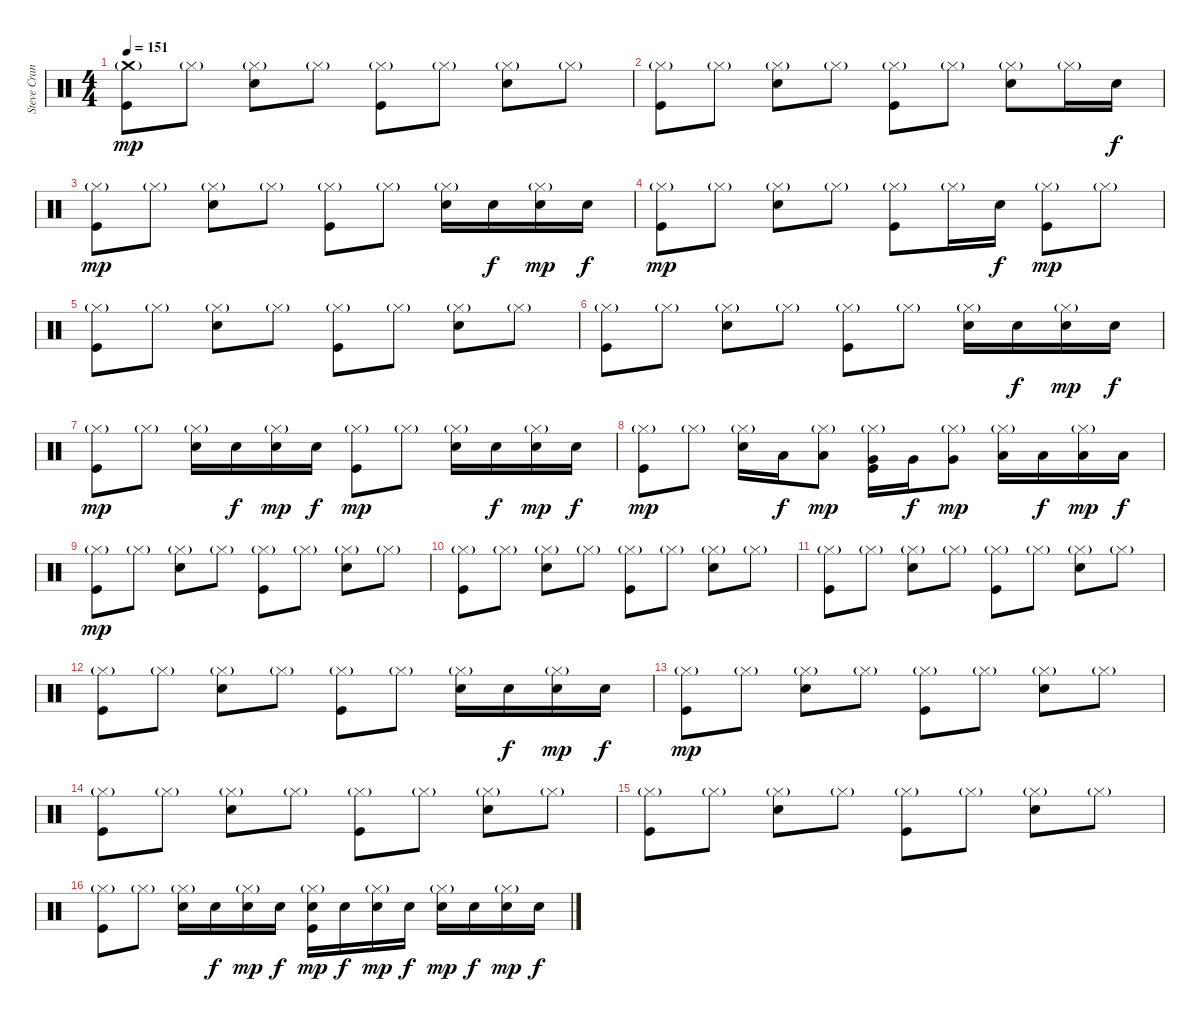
\track ("Steve Crane" "Steve Cran") {instrument percussion}
\staff {score}
\articulation defaults
\ts (4 4)
\tempo 151
\clef neutral
\ks c
("Crash medium (hit)"{g} "Kick (hit)").8{dy mp} "Hi-Hat (closed)"{g}.8 ("Hi-Hat (closed)"{g} "Snare (hit) 2").8 "Hi-Hat (closed)"{g}.8 ("Hi-Hat (closed)"{g} "Kick (hit)").8 "Hi-Hat (closed)"{g}.8 ("Hi-Hat (closed)"{g} "Snare (hit) 2").8 "Hi-Hat (closed)"{g}.8 |
("Hi-Hat (closed)"{g} "Kick (hit)").8 "Hi-Hat (closed)"{g}.8 ("Hi-Hat (closed)"{g} "Snare (hit) 2").8 "Hi-Hat (closed)"{g}.8 ("Hi-Hat (closed)"{g} "Kick (hit)").8 "Hi-Hat (closed)"{g}.8 ("Hi-Hat (closed)"{g} "Snare (hit) 2").8 "Hi-Hat (closed)"{g}.16 "Snare (hit) 2".16{dy f} |
("Hi-Hat (closed)"{g} "Kick (hit)").8{dy mp} "Hi-Hat (closed)"{g}.8 ("Hi-Hat (closed)"{g} "Snare (hit) 2").8 "Hi-Hat (closed)"{g}.8 ("Hi-Hat (closed)"{g} "Kick (hit)").8 "Hi-Hat (closed)"{g}.8 ("Hi-Hat (closed)"{g} "Snare (hit) 2").16 "Snare (hit) 2".16{dy f} ("Hi-Hat (closed)"{g} "Snare (hit) 2").16{dy mp} "Snare (hit) 2".16{dy f} |
("Hi-Hat (closed)"{g} "Kick (hit)").8{dy mp} "Hi-Hat (closed)"{g}.8 ("Hi-Hat (closed)"{g} "Snare (hit) 2").8 "Hi-Hat (closed)"{g}.8 ("Hi-Hat (closed)"{g} "Kick (hit)").8 "Hi-Hat (closed)"{g}.16 "Snare (hit) 2".16{dy f} ("Hi-Hat (closed)"{g} "Kick (hit)").8{dy mp} "Hi-Hat (closed)"{g}.8 |
("Hi-Hat (closed)"{g} "Kick (hit)").8 "Hi-Hat (closed)"{g}.8 ("Hi-Hat (closed)"{g} "Snare (hit) 2").8 "Hi-Hat (closed)"{g}.8 ("Hi-Hat (closed)"{g} "Kick (hit)").8 "Hi-Hat (closed)"{g}.8 ("Hi-Hat (closed)"{g} "Snare (hit) 2").8 "Hi-Hat (closed)"{g}.8 |
("Hi-Hat (closed)"{g} "Kick (hit)").8 "Hi-Hat (closed)"{g}.8 ("Hi-Hat (closed)"{g} "Snare (hit) 2").8 "Hi-Hat (closed)"{g}.8 ("Hi-Hat (closed)"{g} "Kick (hit)").8 "Hi-Hat (closed)"{g}.8 ("Hi-Hat (closed)"{g} "Snare (hit) 2").16 "Snare (hit) 2".16{dy f} ("Hi-Hat (closed)"{g} "Snare (hit) 2").16{dy mp} "Snare (hit) 2".16{dy f} |
("Hi-Hat (closed)"{g} "Kick (hit)").8{dy mp} "Hi-Hat (closed)"{g}.8 ("Hi-Hat (closed)"{g} "Snare (hit) 2").16 "Snare (hit) 2".16{dy f} ("Hi-Hat (closed)"{g} "Snare (hit) 2").16{dy mp} "Snare (hit) 2".16{dy f} ("Hi-Hat (closed)"{g} "Kick (hit)").8{dy mp} "Hi-Hat (closed)"{g}.8 ("Hi-Hat (closed)"{g} "Snare (hit) 2").16 "Snare (hit) 2".16{dy f} ("Hi-Hat (closed)"{g} "Snare (hit) 2").16{dy mp} "Snare (hit) 2".16{dy f} |
("Hi-Hat (closed)"{g} "Kick (hit)").8{dy mp} "Hi-Hat (closed)"{g}.8 ("Hi-Hat (closed)"{g} "Snare (hit) 2").16 "Low Tom (hit)".16{dy f} ("Hi-Hat (closed)"{g} "Low Tom (hit)").8{dy mp} ("Hi-Hat (closed)"{g} "Very Low Tom (hit)" "Kick (hit)").16 "Very Low Tom (hit)".16{dy f} ("Hi-Hat (closed)"{g} "Very Low Tom (hit)").8{dy mp} ("Hi-Hat (closed)"{g} "Low Floor Tom (hit)").16 "Low Floor Tom (hit)".16{dy f} ("Hi-Hat (closed)"{g} "Low Floor Tom (hit)").16{dy mp} "Low Floor Tom (hit)".16{dy f} |
("Hi-Hat (closed)"{g} "Kick (hit)").8{dy mp} "Hi-Hat (closed)"{g}.8 ("Hi-Hat (closed)"{g} "Snare (hit) 2").8 "Hi-Hat (closed)"{g}.8 ("Hi-Hat (closed)"{g} "Kick (hit)").8 "Hi-Hat (closed)"{g}.8 ("Hi-Hat (closed)"{g} "Snare (hit) 2").8 "Hi-Hat (closed)"{g}.8 |
("Hi-Hat (closed)"{g} "Kick (hit)").8 "Hi-Hat (closed)"{g}.8 ("Hi-Hat (closed)"{g} "Snare (hit) 2").8 "Hi-Hat (closed)"{g}.8 ("Hi-Hat (closed)"{g} "Kick (hit)").8 "Hi-Hat (closed)"{g}.8 ("Hi-Hat (closed)"{g} "Snare (hit) 2").8 "Hi-Hat (closed)"{g}.8 |
("Hi-Hat (closed)"{g} "Kick (hit)").8 "Hi-Hat (closed)"{g}.8 ("Hi-Hat (closed)"{g} "Snare (hit) 2").8 "Hi-Hat (closed)"{g}.8 ("Hi-Hat (closed)"{g} "Kick (hit)").8 "Hi-Hat (closed)"{g}.8 ("Hi-Hat (closed)"{g} "Snare (hit) 2").8 "Hi-Hat (closed)"{g}.8 |
("Hi-Hat (closed)"{g} "Kick (hit)").8 "Hi-Hat (closed)"{g}.8 ("Hi-Hat (closed)"{g} "Snare (hit) 2").8 "Hi-Hat (closed)"{g}.8 ("Hi-Hat (closed)"{g} "Kick (hit)").8 "Hi-Hat (closed)"{g}.8 ("Hi-Hat (closed)"{g} "Snare (hit) 2").16 "Snare (hit) 2".16{dy f} ("Hi-Hat (closed)"{g} "Snare (hit) 2").16{dy mp} "Snare (hit) 2".16{dy f} |
("Hi-Hat (closed)"{g} "Kick (hit)").8{dy mp} "Hi-Hat (closed)"{g}.8 ("Hi-Hat (closed)"{g} "Snare (hit) 2").8 "Hi-Hat (closed)"{g}.8 ("Hi-Hat (closed)"{g} "Kick (hit)").8 "Hi-Hat (closed)"{g}.8 ("Hi-Hat (closed)"{g} "Snare (hit) 2").8 "Hi-Hat (closed)"{g}.8 |
("Hi-Hat (closed)"{g} "Kick (hit)").8 "Hi-Hat (closed)"{g}.8 ("Hi-Hat (closed)"{g} "Snare (hit) 2").8 "Hi-Hat (closed)"{g}.8 ("Hi-Hat (closed)"{g} "Kick (hit)").8 "Hi-Hat (closed)"{g}.8 ("Hi-Hat (closed)"{g} "Snare (hit) 2").8 "Hi-Hat (closed)"{g}.8 |
("Hi-Hat (closed)"{g} "Kick (hit)").8 "Hi-Hat (closed)"{g}.8 ("Hi-Hat (closed)"{g} "Snare (hit) 2").8 "Hi-Hat (closed)"{g}.8 ("Hi-Hat (closed)"{g} "Kick (hit)").8 "Hi-Hat (closed)"{g}.8 ("Hi-Hat (closed)"{g} "Snare (hit) 2").8 "Hi-Hat (closed)"{g}.8 |
("Hi-Hat (closed)"{g} "Kick (hit)").8 "Hi-Hat (closed)"{g}.8 ("Hi-Hat (closed)"{g} "Snare (hit) 2").16 "Snare (hit) 2".16{dy f} ("Hi-Hat (closed)"{g} "Snare (hit) 2").16{dy mp} "Snare (hit) 2".16{dy f} ("Hi-Hat (closed)"{g} "Snare (hit) 2" "Kick (hit)").16{dy mp} "Snare (hit) 2".16{dy f} ("Hi-Hat (closed)"{g} "Snare (hit) 2").16{dy mp} "Snare (hit) 2".16{dy f} ("Hi-Hat (closed)"{g} "Snare (hit) 2").16{dy mp} "Snare (hit) 2".16{dy f} ("Hi-Hat (closed)"{g} "Snare (hit) 2").16{dy mp} "Snare (hit) 2".16{dy f}
